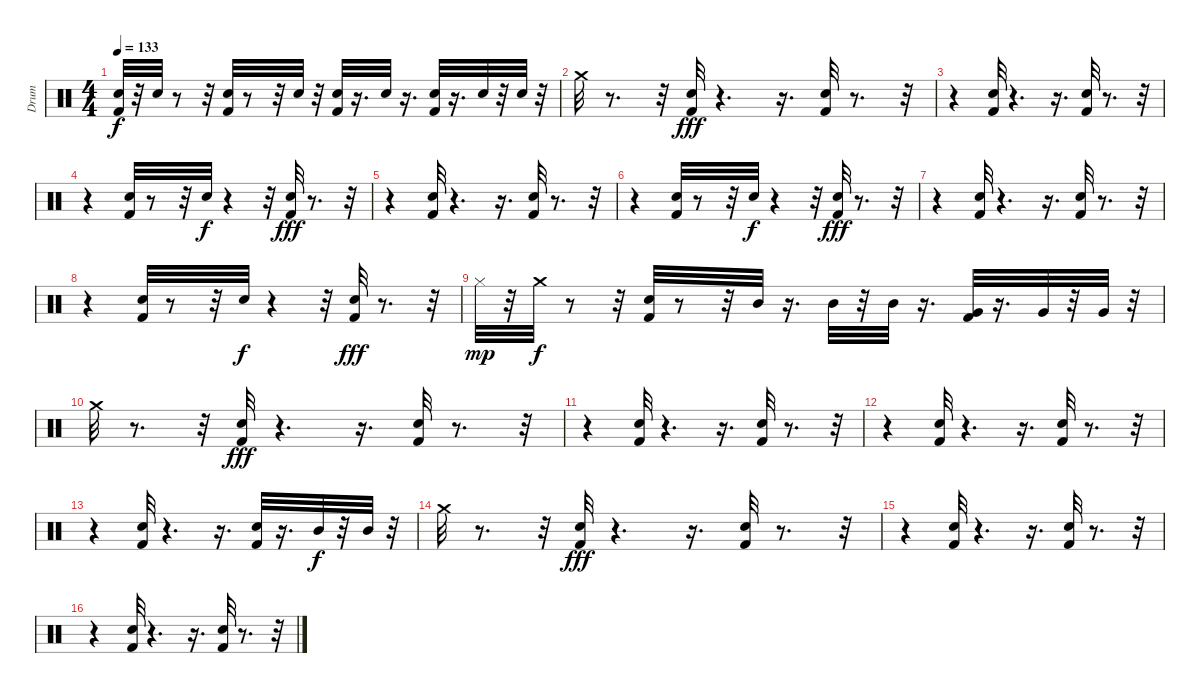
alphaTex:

\track ("Drum" "Drum") {instrument percussion}
\staff {score}
\articulation defaults
\ts (4 4)
\tempo 133
\clef neutral
\ks c
("Kick (hit) 2" "Electric Snare (hit)").32{dy f} r.32 "Electric Snare (hit)".32 r.8 r.32 ("Kick (hit) 2" "Electric Snare (hit)").32 r.8 r.32 "Electric Snare (hit)".32 r.32 ("Kick (hit) 2" "Electric Snare (hit)").32 r.16{d} "Electric Snare (hit)".32 r.16{d} ("Kick (hit) 2" "Electric Snare (hit)").32 r.16{d} "Electric Snare (hit)".32 r.32 "Electric Snare (hit)".32 r.32 |
"Crash medium (hit)".32 r.8{d} r.32 ("Electric Snare (hit)" "Kick (hit) 2").32{dy fff} r.4{d} r.16{d} ("Electric Snare (hit)" "Kick (hit) 2").32 r.8{d} r.32 |
r.4 ("Electric Snare (hit)" "Kick (hit) 2").32 r.4{d} r.16{d} ("Electric Snare (hit)" "Kick (hit) 2").32 r.8{d} r.32 |
r.4 ("Electric Snare (hit)" "Kick (hit) 2").32 r.8 r.32 "Electric Snare (hit)".32{dy f} r.4 r.32 ("Electric Snare (hit)" "Kick (hit) 2").32{dy fff} r.8{d} r.32 |
r.4 ("Electric Snare (hit)" "Kick (hit) 2").32 r.4{d} r.16{d} ("Electric Snare (hit)" "Kick (hit) 2").32 r.8{d} r.32 |
r.4 ("Electric Snare (hit)" "Kick (hit) 2").32 r.8 r.32 "Electric Snare (hit)".32{dy f} r.4 r.32 ("Electric Snare (hit)" "Kick (hit) 2").32{dy fff} r.8{d} r.32 |
r.4 ("Electric Snare (hit)" "Kick (hit) 2").32 r.4{d} r.16{d} ("Electric Snare (hit)" "Kick (hit) 2").32 r.8{d} r.32 |
r.4 ("Electric Snare (hit)" "Kick (hit) 2").32 r.8 r.32 "Electric Snare (hit)".32{dy f} r.4 r.32 ("Electric Snare (hit)" "Kick (hit) 2").32{dy fff} r.8{d} r.32 |
"Hi-Hat (closed)".32{dy mp} r.32 "Crash medium (hit)".32{dy f} r.8 r.32 ("Kick (hit) 2" "Electric Snare (hit)").32 r.8 r.32 "Mid Tom (hit)".32 r.16{d} "Mid Tom (hit)".32 r.32 "Mid Tom (hit)".32 r.16{d} ("Very Low Tom (hit)" "Kick (hit) 2").32 r.16{d} "Very Low Tom (hit)".32 r.32 "Very Low Tom (hit)".32 r.32 |
"Crash medium (hit)".32 r.8{d} r.32 ("Electric Snare (hit)" "Kick (hit) 2").32{dy fff} r.4{d} r.16{d} ("Electric Snare (hit)" "Kick (hit) 2").32 r.8{d} r.32 |
r.4 ("Electric Snare (hit)" "Kick (hit) 2").32 r.4{d} r.16{d} ("Electric Snare (hit)" "Kick (hit) 2").32 r.8{d} r.32 |
r.4 ("Electric Snare (hit)" "Kick (hit) 2").32 r.4{d} r.16{d} ("Electric Snare (hit)" "Kick (hit) 2").32 r.8{d} r.32 |
r.4 ("Electric Snare (hit)" "Kick (hit) 2").32 r.4{d} r.16{d} ("Kick (hit) 2" "Electric Snare (hit)").32 r.16{d} "Mid Tom (hit)".32{dy f} r.32 "Mid Tom (hit)".32 r.32 |
"Crash medium (hit)".32 r.8{d} r.32 ("Electric Snare (hit)" "Kick (hit) 2").32{dy fff} r.4{d} r.16{d} ("Electric Snare (hit)" "Kick (hit) 2").32 r.8{d} r.32 |
r.4 ("Electric Snare (hit)" "Kick (hit) 2").32 r.4{d} r.16{d} ("Electric Snare (hit)" "Kick (hit) 2").32 r.8{d} r.32 |
r.4 ("Electric Snare (hit)" "Kick (hit) 2").32 r.4{d} r.16{d} ("Electric Snare (hit)" "Kick (hit) 2").32 r.8{d} r.32
